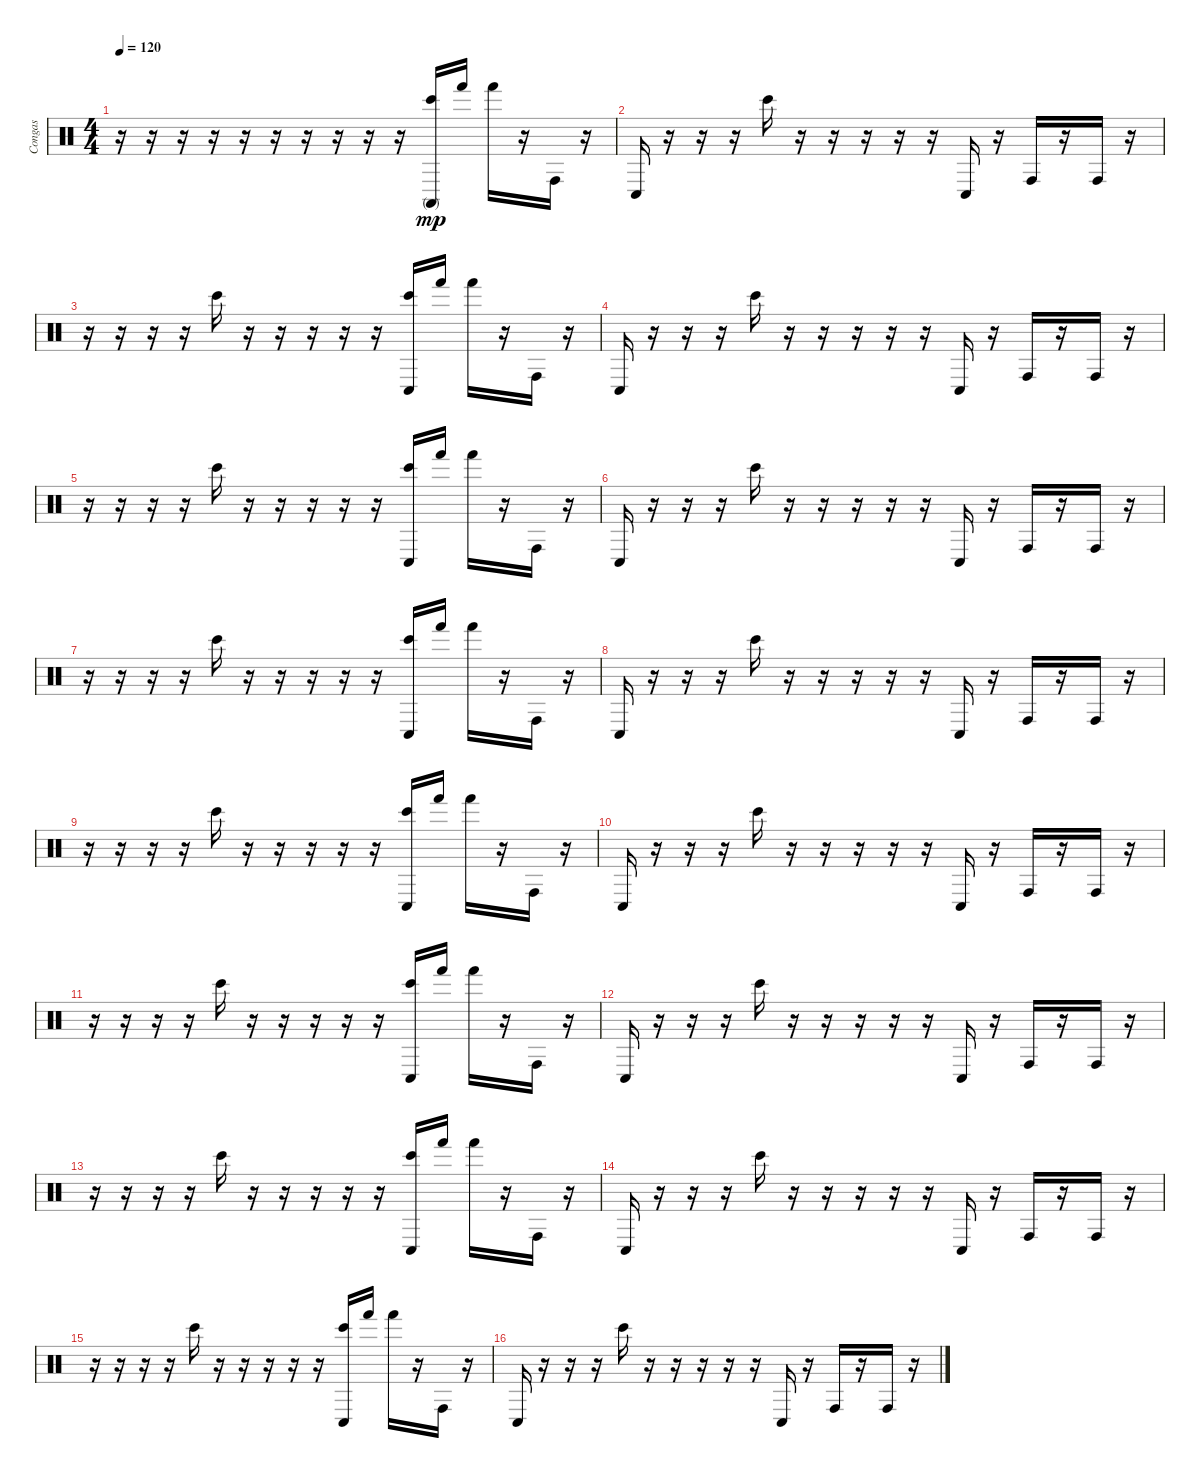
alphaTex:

\track ("Congas" "Congas") {instrument percussion}
\staff {score}
\articulation defaults
\ts (4 4)
\tempo 120
\clef neutral
\ks c
r.16{dy mp} r.16 r.16 r.16 r.16 r.16 r.16 r.16 r.16 r.16 ("Conga high (mute)" "Bongo High (hit)").16 "Hand (hit)".16 "Hand (hit)".16 r.16 "Conga high (hit)".16 r.16 |
"Conga low (hit)".16 r.16 r.16 r.16 "Bongo High (hit)".16 r.16 r.16 r.16 r.16 r.16 "Conga low (hit)".16 r.16 "Conga high (hit)".16 r.16 "Conga high (hit)".16 r.16 |
r.16 r.16 r.16 r.16 "Bongo High (hit)".16 r.16 r.16 r.16 r.16 r.16 ("Bongo High (hit)" "Conga low (hit)").16 "Hand (hit)".16 "Hand (hit)".16 r.16 "Conga high (hit)".16 r.16 |
"Conga low (hit)".16 r.16 r.16 r.16 "Bongo High (hit)".16 r.16 r.16 r.16 r.16 r.16 "Conga low (hit)".16 r.16 "Conga high (hit)".16 r.16 "Conga high (hit)".16 r.16 |
r.16 r.16 r.16 r.16 "Bongo High (hit)".16 r.16 r.16 r.16 r.16 r.16 ("Bongo High (hit)" "Conga low (hit)").16 "Hand (hit)".16 "Hand (hit)".16 r.16 "Conga high (hit)".16 r.16 |
"Conga low (hit)".16 r.16 r.16 r.16 "Bongo High (hit)".16 r.16 r.16 r.16 r.16 r.16 "Conga low (hit)".16 r.16 "Conga high (hit)".16 r.16 "Conga high (hit)".16 r.16 |
r.16 r.16 r.16 r.16 "Bongo High (hit)".16 r.16 r.16 r.16 r.16 r.16 ("Bongo High (hit)" "Conga low (hit)").16 "Hand (hit)".16 "Hand (hit)".16 r.16 "Conga high (hit)".16 r.16 |
"Conga low (hit)".16 r.16 r.16 r.16 "Bongo High (hit)".16 r.16 r.16 r.16 r.16 r.16 "Conga low (hit)".16 r.16 "Conga high (hit)".16 r.16 "Conga high (hit)".16 r.16 |
r.16 r.16 r.16 r.16 "Bongo High (hit)".16 r.16 r.16 r.16 r.16 r.16 ("Bongo High (hit)" "Conga low (hit)").16 "Hand (hit)".16 "Hand (hit)".16 r.16 "Conga high (hit)".16 r.16 |
"Conga low (hit)".16 r.16 r.16 r.16 "Bongo High (hit)".16 r.16 r.16 r.16 r.16 r.16 "Conga low (hit)".16 r.16 "Conga high (hit)".16 r.16 "Conga high (hit)".16 r.16 |
r.16 r.16 r.16 r.16 "Bongo High (hit)".16 r.16 r.16 r.16 r.16 r.16 ("Bongo High (hit)" "Conga low (hit)").16 "Hand (hit)".16 "Hand (hit)".16 r.16 "Conga high (hit)".16 r.16 |
"Conga low (hit)".16 r.16 r.16 r.16 "Bongo High (hit)".16 r.16 r.16 r.16 r.16 r.16 "Conga low (hit)".16 r.16 "Conga high (hit)".16 r.16 "Conga high (hit)".16 r.16 |
r.16 r.16 r.16 r.16 "Bongo High (hit)".16 r.16 r.16 r.16 r.16 r.16 ("Bongo High (hit)" "Conga low (hit)").16 "Hand (hit)".16 "Hand (hit)".16 r.16 "Conga high (hit)".16 r.16 |
"Conga low (hit)".16 r.16 r.16 r.16 "Bongo High (hit)".16 r.16 r.16 r.16 r.16 r.16 "Conga low (hit)".16 r.16 "Conga high (hit)".16 r.16 "Conga high (hit)".16 r.16 |
r.16 r.16 r.16 r.16 "Bongo High (hit)".16 r.16 r.16 r.16 r.16 r.16 ("Bongo High (hit)" "Conga low (hit)").16 "Hand (hit)".16 "Hand (hit)".16 r.16 "Conga high (hit)".16 r.16 |
"Conga low (hit)".16 r.16 r.16 r.16 "Bongo High (hit)".16 r.16 r.16 r.16 r.16 r.16 "Conga low (hit)".16 r.16 "Conga high (hit)".16 r.16 "Conga high (hit)".16 r.16
